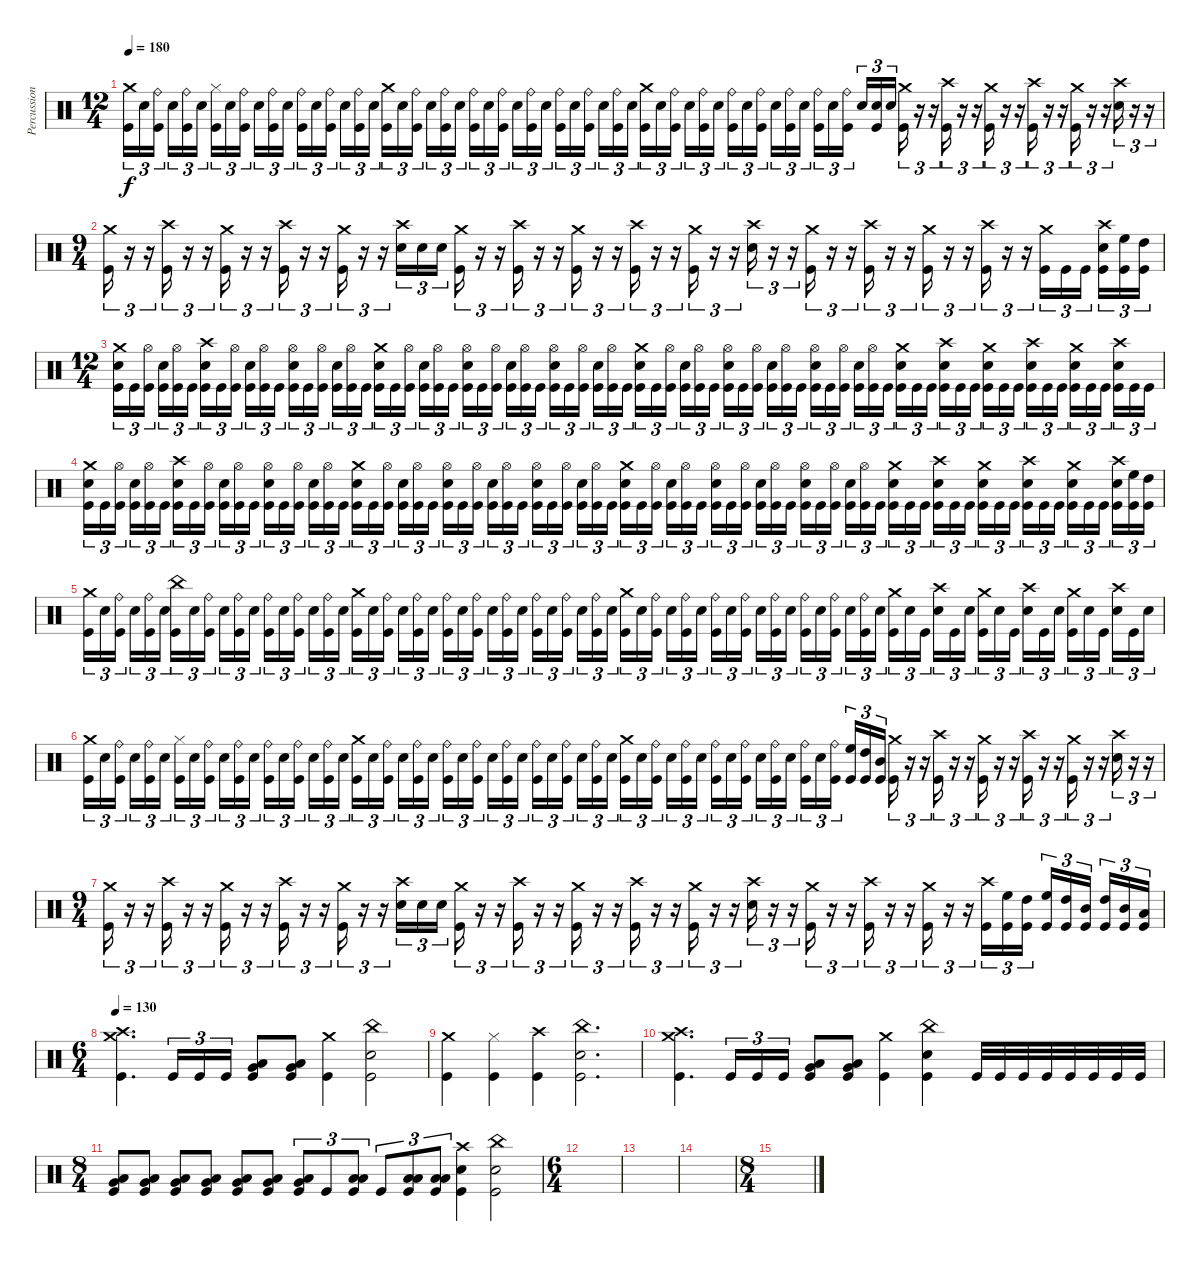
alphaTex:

\track ("Percussion" "Percussion") {instrument percussion}
\staff {score}
\articulation defaults
\ts (12 4)
\tempo 180
\clef neutral
\ks c
("Crash medium (hit)" "Kick (hit)").16{tu (3 2) dy f} "Snare (hit) 2".16{tu (3 2)} ("Ride (bell)" "Kick (hit)").16{tu (3 2) beam splitsecondary} "Snare (hit) 2".16{tu (3 2)} ("Ride (bell)" "Kick (hit)").16{tu (3 2)} "Snare (hit) 2".16{tu (3 2) beam splitsecondary} ("Hi-Hat (closed)" "Kick (hit)").16{tu (3 2)} "Snare (hit) 2".16{tu (3 2)} ("Ride (bell)" "Kick (hit)").16{tu (3 2) beam splitsecondary} "Snare (hit) 2".16{tu (3 2)} ("Ride (bell)" "Kick (hit)").16{tu (3 2)} "Snare (hit) 2".16{tu (3 2) beam splitsecondary} ("Ride (bell)" "Kick (hit)").16{tu (3 2)} "Snare (hit) 2".16{tu (3 2)} ("Ride (bell)" "Kick (hit)").16{tu (3 2) beam splitsecondary} "Snare (hit) 2".16{tu (3 2)} ("Ride (bell)" "Kick (hit)").16{tu (3 2)} "Snare (hit) 2".16{tu (3 2)} ("Crash medium (hit)" "Kick (hit)").16{tu (3 2)} "Snare (hit) 2".16{tu (3 2)} ("Ride (bell)" "Kick (hit)").16{tu (3 2) beam splitsecondary} "Snare (hit) 2".16{tu (3 2)} ("Ride (bell)" "Kick (hit)").16{tu (3 2)} "Snare (hit) 2".16{tu (3 2) beam splitsecondary} ("Ride (bell)" "Kick (hit)").16{tu (3 2)} "Snare (hit) 2".16{tu (3 2)} ("Ride (bell)" "Kick (hit)").16{tu (3 2) beam splitsecondary} "Snare (hit) 2".16{tu (3 2)} ("Ride (bell)" "Kick (hit)").16{tu (3 2)} "Snare (hit) 2".16{tu (3 2) beam splitsecondary} ("Ride (bell)" "Kick (hit)").16{tu (3 2)} "Snare (hit) 2".16{tu (3 2)} ("Ride (bell)" "Kick (hit)").16{tu (3 2) beam splitsecondary} "Snare (hit) 2".16{tu (3 2)} ("Ride (bell)" "Kick (hit)").16{tu (3 2)} "Snare (hit) 2".16{tu (3 2)} ("Crash medium (hit)" "Kick (hit)").16{tu (3 2)} "Snare (hit) 2".16{tu (3 2)} ("Ride (bell)" "Kick (hit)").16{tu (3 2) beam splitsecondary} "Snare (hit) 2".16{tu (3 2)} ("Ride (bell)" "Kick (hit)").16{tu (3 2)} "Snare (hit) 2".16{tu (3 2) beam splitsecondary} ("Ride (bell)" "Kick (hit)").16{tu (3 2)} "Snare (hit) 2".16{tu (3 2)} ("Ride (bell)" "Kick (hit)").16{tu (3 2) beam splitsecondary} "Snare (hit) 2".16{tu (3 2)} ("Ride (bell)" "Kick (hit)").16{tu (3 2)} "Snare (hit) 2".16{tu (3 2) beam splitsecondary} ("Ride (bell)" "Kick (hit)").16{tu (3 2)} "Snare (hit) 2".16{tu (3 2)} ("Ride (bell)" "Kick (hit)").16{tu (3 2) beam splitsecondary} "Snare (hit) 2".16{tu (3 2)} ("Snare (hit) 2" "Kick (hit)").16{tu (3 2)} "Snare (hit) 2".16{tu (3 2)} ("Crash medium (hit)" "Kick (hit)").16{tu (3 2)} r.16{tu (3 2)} r.16{tu (3 2)} ("Crash high (hit)" "Kick (hit)").16{tu (3 2)} r.16{tu (3 2)} r.16{tu (3 2)} ("Crash medium (hit)" "Kick (hit)").16{tu (3 2)} r.16{tu (3 2)} r.16{tu (3 2)} ("Crash high (hit)" "Kick (hit)").16{tu (3 2)} r.16{tu (3 2)} r.16{tu (3 2)} ("Crash medium (hit)" "Kick (hit)").16{tu (3 2)} r.16{tu (3 2)} r.16{tu (3 2)} ("Crash high (hit)" "Snare (hit) 2").16{tu (3 2)} r.16{tu (3 2)} r.16{tu (3 2)} |
\ts (9 4)
("Crash medium (hit)" "Kick (hit)").16{tu (3 2)} r.16{tu (3 2)} r.16{tu (3 2)} ("Crash high (hit)" "Kick (hit)").16{tu (3 2)} r.16{tu (3 2)} r.16{tu (3 2)} ("Crash medium (hit)" "Kick (hit)").16{tu (3 2)} r.16{tu (3 2)} r.16{tu (3 2)} ("Crash high (hit)" "Kick (hit)").16{tu (3 2)} r.16{tu (3 2)} r.16{tu (3 2)} ("Crash medium (hit)" "Kick (hit)").16{tu (3 2)} r.16{tu (3 2)} r.16{tu (3 2)} ("Crash high (hit)" "Snare (hit) 2").16{tu (3 2)} "Snare (hit) 2".16{tu (3 2)} "Snare (hit) 2".16{tu (3 2)} ("Crash medium (hit)" "Kick (hit)").16{tu (3 2)} r.16{tu (3 2)} r.16{tu (3 2)} ("Crash high (hit)" "Kick (hit)").16{tu (3 2)} r.16{tu (3 2)} r.16{tu (3 2)} ("Crash medium (hit)" "Kick (hit)").16{tu (3 2)} r.16{tu (3 2)} r.16{tu (3 2)} ("Crash high (hit)" "Kick (hit)").16{tu (3 2)} r.16{tu (3 2)} r.16{tu (3 2)} ("Crash medium (hit)" "Kick (hit)").16{tu (3 2)} r.16{tu (3 2)} r.16{tu (3 2)} ("Crash high (hit)" "Snare (hit) 2").16{tu (3 2)} r.16{tu (3 2)} r.16{tu (3 2)} ("Crash medium (hit)" "Kick (hit)").16{tu (3 2)} r.16{tu (3 2)} r.16{tu (3 2)} ("Crash high (hit)" "Kick (hit)").16{tu (3 2)} r.16{tu (3 2)} r.16{tu (3 2)} ("Crash medium (hit)" "Kick (hit)").16{tu (3 2)} r.16{tu (3 2)} r.16{tu (3 2)} ("Crash high (hit)" "Kick (hit)").16{tu (3 2)} r.16{tu (3 2)} r.16{tu (3 2)} ("Crash medium (hit)" "Kick (hit)").16{tu (3 2)} "Kick (hit)".16{tu (3 2)} "Kick (hit)".16{tu (3 2) beam splitsecondary} ("Crash high (hit)" "Snare (hit) 2" "Kick (hit)").16{tu (3 2)} ("High Floor Tom (hit)" "Kick (hit)").16{tu (3 2)} ("High Tom (hit)" "Kick (hit)").16{tu (3 2)} |
\ts (12 4)
("Crash medium (hit)" "Snare (hit) 2" "Kick (hit)").16{tu (3 2)} "Kick (hit)".16{tu (3 2)} ("Hi-Hat (open)" "Kick (hit)").16{tu (3 2) beam splitsecondary} ("Snare (hit) 2" "Kick (hit)").16{tu (3 2)} ("Hi-Hat (open)" "Kick (hit)").16{tu (3 2)} "Kick (hit)".16{tu (3 2) beam splitsecondary} ("Crash high (hit)" "Snare (hit) 2" "Kick (hit)").16{tu (3 2)} "Kick (hit)".16{tu (3 2)} ("Hi-Hat (open)" "Kick (hit)").16{tu (3 2) beam splitsecondary} ("Snare (hit) 2" "Kick (hit)").16{tu (3 2)} ("Hi-Hat (open)" "Kick (hit)").16{tu (3 2)} "Kick (hit)".16{tu (3 2) beam splitsecondary} ("Hi-Hat (open)" "Snare (hit) 2" "Kick (hit)").16{tu (3 2)} "Kick (hit)".16{tu (3 2)} ("Hi-Hat (open)" "Kick (hit)").16{tu (3 2) beam splitsecondary} ("Snare (hit) 2" "Kick (hit)").16{tu (3 2)} ("Hi-Hat (open)" "Kick (hit)").16{tu (3 2)} "Kick (hit)".16{tu (3 2)} ("Crash medium (hit)" "Snare (hit) 2" "Kick (hit)").16{tu (3 2)} "Kick (hit)".16{tu (3 2)} ("Hi-Hat (open)" "Kick (hit)").16{tu (3 2) beam splitsecondary} ("Snare (hit) 2" "Kick (hit)").16{tu (3 2)} ("Hi-Hat (open)" "Kick (hit)").16{tu (3 2)} "Kick (hit)".16{tu (3 2) beam splitsecondary} ("Hi-Hat (open)" "Snare (hit) 2" "Kick (hit)").16{tu (3 2)} "Kick (hit)".16{tu (3 2)} ("Hi-Hat (open)" "Kick (hit)").16{tu (3 2) beam splitsecondary} ("Snare (hit) 2" "Kick (hit)").16{tu (3 2)} ("Hi-Hat (open)" "Kick (hit)").16{tu (3 2)} "Kick (hit)".16{tu (3 2) beam splitsecondary} ("Hi-Hat (open)" "Snare (hit) 2" "Kick (hit)").16{tu (3 2)} "Kick (hit)".16{tu (3 2)} ("Hi-Hat (open)" "Kick (hit)").16{tu (3 2) beam splitsecondary} ("Snare (hit) 2" "Kick (hit)").16{tu (3 2)} ("Hi-Hat (open)" "Kick (hit)").16{tu (3 2)} "Kick (hit)".16{tu (3 2)} ("Crash medium (hit)" "Snare (hit) 2" "Kick (hit)").16{tu (3 2)} "Kick (hit)".16{tu (3 2)} ("Hi-Hat (open)" "Kick (hit)").16{tu (3 2) beam splitsecondary} ("Snare (hit) 2" "Kick (hit)").16{tu (3 2)} ("Hi-Hat (open)" "Kick (hit)").16{tu (3 2)} "Kick (hit)".16{tu (3 2) beam splitsecondary} ("Hi-Hat (open)" "Snare (hit) 2" "Kick (hit)").16{tu (3 2)} "Kick (hit)".16{tu (3 2)} ("Hi-Hat (open)" "Kick (hit)").16{tu (3 2) beam splitsecondary} ("Snare (hit) 2" "Kick (hit)").16{tu (3 2)} ("Hi-Hat (open)" "Kick (hit)").16{tu (3 2)} "Kick (hit)".16{tu (3 2) beam splitsecondary} ("Hi-Hat (open)" "Snare (hit) 2" "Kick (hit)").16{tu (3 2)} "Kick (hit)".16{tu (3 2)} ("Hi-Hat (open)" "Kick (hit)").16{tu (3 2) beam splitsecondary} ("Snare (hit) 2" "Kick (hit)").16{tu (3 2)} ("Hi-Hat (open)" "Kick (hit)").16{tu (3 2)} "Kick (hit)".16{tu (3 2)} ("Crash medium (hit)" "Snare (hit) 2" "Kick (hit)").16{tu (3 2)} "Kick (hit)".16{tu (3 2)} "Kick (hit)".16{tu (3 2) beam splitsecondary} ("Crash high (hit)" "Snare (hit) 2" "Kick (hit)").16{tu (3 2)} "Kick (hit)".16{tu (3 2)} "Kick (hit)".16{tu (3 2) beam splitsecondary} ("Crash medium (hit)" "Snare (hit) 2" "Kick (hit)").16{tu (3 2)} "Kick (hit)".16{tu (3 2)} "Kick (hit)".16{tu (3 2) beam splitsecondary} ("Crash high (hit)" "Snare (hit) 2" "Kick (hit)").16{tu (3 2)} "Kick (hit)".16{tu (3 2)} "Kick (hit)".16{tu (3 2) beam splitsecondary} ("Crash medium (hit)" "Snare (hit) 2" "Kick (hit)").16{tu (3 2)} "Kick (hit)".16{tu (3 2)} "Kick (hit)".16{tu (3 2) beam splitsecondary} ("Crash high (hit)" "Snare (hit) 2" "Kick (hit)").16{tu (3 2)} "Kick (hit)".16{tu (3 2)} "Kick (hit)".16{tu (3 2)} |
("Crash medium (hit)" "Snare (hit) 2" "Kick (hit)").16{tu (3 2)} "Kick (hit)".16{tu (3 2)} ("Hi-Hat (open)" "Kick (hit)").16{tu (3 2) beam splitsecondary} ("Snare (hit) 2" "Kick (hit)").16{tu (3 2)} ("Hi-Hat (open)" "Kick (hit)").16{tu (3 2)} "Kick (hit)".16{tu (3 2) beam splitsecondary} ("Crash high (hit)" "Snare (hit) 2" "Kick (hit)").16{tu (3 2)} "Kick (hit)".16{tu (3 2)} ("Hi-Hat (open)" "Kick (hit)").16{tu (3 2) beam splitsecondary} ("Snare (hit) 2" "Kick (hit)").16{tu (3 2)} ("Hi-Hat (open)" "Kick (hit)").16{tu (3 2)} "Kick (hit)".16{tu (3 2) beam splitsecondary} ("Hi-Hat (open)" "Snare (hit) 2" "Kick (hit)").16{tu (3 2)} "Kick (hit)".16{tu (3 2)} ("Hi-Hat (open)" "Kick (hit)").16{tu (3 2) beam splitsecondary} ("Snare (hit) 2" "Kick (hit)").16{tu (3 2)} ("Hi-Hat (open)" "Kick (hit)").16{tu (3 2)} "Kick (hit)".16{tu (3 2)} ("Crash medium (hit)" "Snare (hit) 2" "Kick (hit)").16{tu (3 2)} "Kick (hit)".16{tu (3 2)} ("Hi-Hat (open)" "Kick (hit)").16{tu (3 2) beam splitsecondary} ("Snare (hit) 2" "Kick (hit)").16{tu (3 2)} ("Hi-Hat (open)" "Kick (hit)").16{tu (3 2)} "Kick (hit)".16{tu (3 2) beam splitsecondary} ("Hi-Hat (open)" "Snare (hit) 2" "Kick (hit)").16{tu (3 2)} "Kick (hit)".16{tu (3 2)} ("Hi-Hat (open)" "Kick (hit)").16{tu (3 2) beam splitsecondary} ("Snare (hit) 2" "Kick (hit)").16{tu (3 2)} ("Hi-Hat (open)" "Kick (hit)").16{tu (3 2)} "Kick (hit)".16{tu (3 2) beam splitsecondary} ("Hi-Hat (open)" "Snare (hit) 2" "Kick (hit)").16{tu (3 2)} "Kick (hit)".16{tu (3 2)} ("Hi-Hat (open)" "Kick (hit)").16{tu (3 2) beam splitsecondary} ("Snare (hit) 2" "Kick (hit)").16{tu (3 2)} ("Hi-Hat (open)" "Kick (hit)").16{tu (3 2)} "Kick (hit)".16{tu (3 2)} ("Crash medium (hit)" "Snare (hit) 2" "Kick (hit)").16{tu (3 2)} "Kick (hit)".16{tu (3 2)} ("Hi-Hat (open)" "Kick (hit)").16{tu (3 2) beam splitsecondary} ("Snare (hit) 2" "Kick (hit)").16{tu (3 2)} ("Hi-Hat (open)" "Kick (hit)").16{tu (3 2)} "Kick (hit)".16{tu (3 2) beam splitsecondary} ("Hi-Hat (open)" "Snare (hit) 2" "Kick (hit)").16{tu (3 2)} "Kick (hit)".16{tu (3 2)} ("Hi-Hat (open)" "Kick (hit)").16{tu (3 2) beam splitsecondary} ("Snare (hit) 2" "Kick (hit)").16{tu (3 2)} ("Hi-Hat (open)" "Kick (hit)").16{tu (3 2)} "Kick (hit)".16{tu (3 2) beam splitsecondary} ("Hi-Hat (open)" "Snare (hit) 2" "Kick (hit)").16{tu (3 2)} "Kick (hit)".16{tu (3 2)} ("Hi-Hat (open)" "Kick (hit)").16{tu (3 2) beam splitsecondary} ("Snare (hit) 2" "Kick (hit)").16{tu (3 2)} ("Hi-Hat (open)" "Kick (hit)").16{tu (3 2)} "Kick (hit)".16{tu (3 2)} ("Crash medium (hit)" "Snare (hit) 2" "Kick (hit)").16{tu (3 2)} "Kick (hit)".16{tu (3 2)} "Kick (hit)".16{tu (3 2) beam splitsecondary} ("Crash high (hit)" "Snare (hit) 2" "Kick (hit)").16{tu (3 2)} "Kick (hit)".16{tu (3 2)} "Kick (hit)".16{tu (3 2) beam splitsecondary} ("Crash medium (hit)" "Snare (hit) 2" "Kick (hit)").16{tu (3 2)} "Kick (hit)".16{tu (3 2)} "Kick (hit)".16{tu (3 2) beam splitsecondary} ("Crash high (hit)" "Snare (hit) 2" "Kick (hit)").16{tu (3 2)} "Kick (hit)".16{tu (3 2)} "Kick (hit)".16{tu (3 2) beam splitsecondary} ("Crash medium (hit)" "Snare (hit) 2" "Kick (hit)").16{tu (3 2)} "Kick (hit)".16{tu (3 2)} "Kick (hit)".16{tu (3 2) beam splitsecondary} ("Crash high (hit)" "Snare (hit) 2" "Kick (hit)").16{tu (3 2)} ("High Floor Tom (hit)" "Kick (hit)").16{tu (3 2)} ("High Tom (hit)" "Kick (hit)").16{tu (3 2)} |
("Crash medium (hit)" "Kick (hit)").16{tu (3 2)} "Snare (hit) 2".16{tu (3 2)} ("Ride (bell)" "Kick (hit)").16{tu (3 2) beam splitsecondary} "Snare (hit) 2".16{tu (3 2)} ("Ride (bell)" "Kick (hit)").16{tu (3 2)} "Snare (hit) 2".16{tu (3 2) beam splitsecondary} ("China (hit)" "Kick (hit)").16{tu (3 2)} "Snare (hit) 2".16{tu (3 2)} ("Ride (bell)" "Kick (hit)").16{tu (3 2) beam splitsecondary} "Snare (hit) 2".16{tu (3 2)} ("Ride (bell)" "Kick (hit)").16{tu (3 2)} "Snare (hit) 2".16{tu (3 2) beam splitsecondary} ("Ride (bell)" "Kick (hit)").16{tu (3 2)} "Snare (hit) 2".16{tu (3 2)} ("Ride (bell)" "Kick (hit)").16{tu (3 2) beam splitsecondary} "Snare (hit) 2".16{tu (3 2)} ("Ride (bell)" "Kick (hit)").16{tu (3 2)} "Snare (hit) 2".16{tu (3 2)} ("Crash medium (hit)" "Kick (hit)").16{tu (3 2)} "Snare (hit) 2".16{tu (3 2)} ("Ride (bell)" "Kick (hit)").16{tu (3 2) beam splitsecondary} "Snare (hit) 2".16{tu (3 2)} ("Ride (bell)" "Kick (hit)").16{tu (3 2)} "Snare (hit) 2".16{tu (3 2) beam splitsecondary} ("Ride (bell)" "Kick (hit)").16{tu (3 2)} "Snare (hit) 2".16{tu (3 2)} ("Ride (bell)" "Kick (hit)").16{tu (3 2) beam splitsecondary} "Snare (hit) 2".16{tu (3 2)} ("Ride (bell)" "Kick (hit)").16{tu (3 2)} "Snare (hit) 2".16{tu (3 2) beam splitsecondary} ("Ride (bell)" "Kick (hit)").16{tu (3 2)} "Snare (hit) 2".16{tu (3 2)} ("Ride (bell)" "Kick (hit)").16{tu (3 2) beam splitsecondary} "Snare (hit) 2".16{tu (3 2)} ("Ride (bell)" "Kick (hit)").16{tu (3 2)} "Snare (hit) 2".16{tu (3 2)} ("Crash medium (hit)" "Kick (hit)").16{tu (3 2)} "Snare (hit) 2".16{tu (3 2)} ("Ride (bell)" "Kick (hit)").16{tu (3 2) beam splitsecondary} "Snare (hit) 2".16{tu (3 2)} ("Ride (bell)" "Kick (hit)").16{tu (3 2)} "Snare (hit) 2".16{tu (3 2) beam splitsecondary} ("Ride (bell)" "Kick (hit)").16{tu (3 2)} "Snare (hit) 2".16{tu (3 2)} ("Ride (bell)" "Kick (hit)").16{tu (3 2) beam splitsecondary} "Snare (hit) 2".16{tu (3 2)} ("Ride (bell)" "Kick (hit)").16{tu (3 2)} "Snare (hit) 2".16{tu (3 2) beam splitsecondary} ("Ride (bell)" "Kick (hit)").16{tu (3 2)} "Snare (hit) 2".16{tu (3 2)} ("Ride (bell)" "Kick (hit)").16{tu (3 2) beam splitsecondary} "Snare (hit) 2".16{tu (3 2)} ("Ride (bell)" "Kick (hit)").16{tu (3 2)} "Snare (hit) 2".16{tu (3 2)} ("Crash medium (hit)" "Kick (hit)").16{tu (3 2)} "Snare (hit) 2".16{tu (3 2)} "Kick (hit)".16{tu (3 2) beam splitsecondary} ("Crash high (hit)" "Snare (hit) 2").16{tu (3 2)} "Kick (hit)".16{tu (3 2)} "Snare (hit) 2".16{tu (3 2) beam splitsecondary} ("Crash medium (hit)" "Kick (hit)").16{tu (3 2)} "Snare (hit) 2".16{tu (3 2)} "Kick (hit)".16{tu (3 2) beam splitsecondary} ("Crash high (hit)" "Snare (hit) 2").16{tu (3 2)} "Kick (hit)".16{tu (3 2)} "Snare (hit) 2".16{tu (3 2) beam splitsecondary} ("Crash medium (hit)" "Kick (hit)").16{tu (3 2)} "Snare (hit) 2".16{tu (3 2)} "Kick (hit)".16{tu (3 2) beam splitsecondary} ("Crash high (hit)" "Snare (hit) 2").16{tu (3 2)} "Kick (hit)".16{tu (3 2)} "Snare (hit) 2".16{tu (3 2)} |
("Crash medium (hit)" "Kick (hit)").16{tu (3 2)} "Snare (hit) 2".16{tu (3 2)} ("Ride (bell)" "Kick (hit)").16{tu (3 2) beam splitsecondary} "Snare (hit) 2".16{tu (3 2)} ("Ride (bell)" "Kick (hit)").16{tu (3 2)} "Snare (hit) 2".16{tu (3 2) beam splitsecondary} ("Hi-Hat (closed)" "Kick (hit)").16{tu (3 2)} "Snare (hit) 2".16{tu (3 2)} ("Ride (bell)" "Kick (hit)").16{tu (3 2) beam splitsecondary} "Snare (hit) 2".16{tu (3 2)} ("Ride (bell)" "Kick (hit)").16{tu (3 2)} "Snare (hit) 2".16{tu (3 2) beam splitsecondary} ("Ride (bell)" "Kick (hit)").16{tu (3 2)} "Snare (hit) 2".16{tu (3 2)} ("Ride (bell)" "Kick (hit)").16{tu (3 2) beam splitsecondary} "Snare (hit) 2".16{tu (3 2)} ("Ride (bell)" "Kick (hit)").16{tu (3 2)} "Snare (hit) 2".16{tu (3 2)} ("Crash medium (hit)" "Kick (hit)").16{tu (3 2)} "Snare (hit) 2".16{tu (3 2)} ("Ride (bell)" "Kick (hit)").16{tu (3 2) beam splitsecondary} "Snare (hit) 2".16{tu (3 2)} ("Ride (bell)" "Kick (hit)").16{tu (3 2)} "Snare (hit) 2".16{tu (3 2) beam splitsecondary} ("Ride (bell)" "Kick (hit)").16{tu (3 2)} "Snare (hit) 2".16{tu (3 2)} ("Ride (bell)" "Kick (hit)").16{tu (3 2) beam splitsecondary} "Snare (hit) 2".16{tu (3 2)} ("Ride (bell)" "Kick (hit)").16{tu (3 2)} "Snare (hit) 2".16{tu (3 2) beam splitsecondary} ("Ride (bell)" "Kick (hit)").16{tu (3 2)} "Snare (hit) 2".16{tu (3 2)} ("Ride (bell)" "Kick (hit)").16{tu (3 2) beam splitsecondary} "Snare (hit) 2".16{tu (3 2)} ("Ride (bell)" "Kick (hit)").16{tu (3 2)} "Snare (hit) 2".16{tu (3 2)} ("Crash medium (hit)" "Kick (hit)").16{tu (3 2)} "Snare (hit) 2".16{tu (3 2)} ("Ride (bell)" "Kick (hit)").16{tu (3 2) beam splitsecondary} "Snare (hit) 2".16{tu (3 2)} ("Ride (bell)" "Kick (hit)").16{tu (3 2)} "Snare (hit) 2".16{tu (3 2) beam splitsecondary} ("Ride (bell)" "Kick (hit)").16{tu (3 2)} "Snare (hit) 2".16{tu (3 2)} ("Ride (bell)" "Kick (hit)").16{tu (3 2) beam splitsecondary} "Snare (hit) 2".16{tu (3 2)} ("Ride (bell)" "Kick (hit)").16{tu (3 2)} "Snare (hit) 2".16{tu (3 2) beam splitsecondary} ("Ride (bell)" "Kick (hit)").16{tu (3 2)} "Snare (hit) 2".16{tu (3 2)} ("Ride (bell)" "Kick (hit)").16{tu (3 2) beam splitsecondary} ("High Floor Tom (hit)" "Kick (hit)").16{tu (3 2)} ("High Tom (hit)" "Kick (hit)").16{tu (3 2)} ("Mid Tom (hit)" "Kick (hit)").16{tu (3 2)} ("Crash medium (hit)" "Kick (hit)").16{tu (3 2)} r.16{tu (3 2)} r.16{tu (3 2)} ("Crash high (hit)" "Kick (hit)").16{tu (3 2)} r.16{tu (3 2)} r.16{tu (3 2)} ("Crash medium (hit)" "Kick (hit)").16{tu (3 2)} r.16{tu (3 2)} r.16{tu (3 2)} ("Crash high (hit)" "Kick (hit)").16{tu (3 2)} r.16{tu (3 2)} r.16{tu (3 2)} ("Crash medium (hit)" "Kick (hit)").16{tu (3 2)} r.16{tu (3 2)} r.16{tu (3 2)} ("Crash high (hit)" "Snare (hit) 2").16{tu (3 2)} r.16{tu (3 2)} r.16{tu (3 2)} |
\ts (9 4)
("Crash medium (hit)" "Kick (hit)").16{tu (3 2)} r.16{tu (3 2)} r.16{tu (3 2)} ("Crash high (hit)" "Kick (hit)").16{tu (3 2)} r.16{tu (3 2)} r.16{tu (3 2)} ("Crash medium (hit)" "Kick (hit)").16{tu (3 2)} r.16{tu (3 2)} r.16{tu (3 2)} ("Crash high (hit)" "Kick (hit)").16{tu (3 2)} r.16{tu (3 2)} r.16{tu (3 2)} ("Crash medium (hit)" "Kick (hit)").16{tu (3 2)} r.16{tu (3 2)} r.16{tu (3 2)} ("Crash high (hit)" "Snare (hit) 2").16{tu (3 2)} "Snare (hit) 2".16{tu (3 2)} "Snare (hit) 2".16{tu (3 2)} ("Crash medium (hit)" "Kick (hit)").16{tu (3 2)} r.16{tu (3 2)} r.16{tu (3 2)} ("Crash high (hit)" "Kick (hit)").16{tu (3 2)} r.16{tu (3 2)} r.16{tu (3 2)} ("Crash medium (hit)" "Kick (hit)").16{tu (3 2)} r.16{tu (3 2)} r.16{tu (3 2)} ("Crash high (hit)" "Kick (hit)").16{tu (3 2)} r.16{tu (3 2)} r.16{tu (3 2)} ("Crash medium (hit)" "Kick (hit)").16{tu (3 2)} r.16{tu (3 2)} r.16{tu (3 2)} ("Crash high (hit)" "Snare (hit) 2").16{tu (3 2)} r.16{tu (3 2)} r.16{tu (3 2)} ("Crash medium (hit)" "Kick (hit)").16{tu (3 2)} r.16{tu (3 2)} r.16{tu (3 2)} ("Crash high (hit)" "Kick (hit)").16{tu (3 2)} r.16{tu (3 2)} r.16{tu (3 2)} ("Crash medium (hit)" "Kick (hit)").16{tu (3 2)} r.16{tu (3 2)} r.16{tu (3 2)} ("Crash high (hit)" "Kick (hit)").16{tu (3 2)} ("High Floor Tom (hit)" "Kick (hit)").16{tu (3 2)} ("High Tom (hit)" "Kick (hit)").16{tu (3 2) beam splitsecondary} ("High Floor Tom (hit)" "Kick (hit)").16{tu (3 2)} ("High Tom (hit)" "Kick (hit)").16{tu (3 2)} ("Mid Tom (hit)" "Kick (hit)").16{tu (3 2) beam splitsecondary} ("High Tom (hit)" "Kick (hit)").16{tu (3 2)} ("Mid Tom (hit)" "Kick (hit)").16{tu (3 2)} ("Low Tom (hit)" "Kick (hit)").16{tu (3 2)} |
\ts (6 4)
\tempo 130
("Crash high (hit)" "Crash medium (hit)" "Kick (hit)").4{d} "Kick (hit)".16{tu (3 2)} "Kick (hit)".16{tu (3 2)} "Kick (hit)".16{tu (3 2)} ("Very Low Tom (hit)" "Low Floor Tom (hit)" "Kick (hit)").8 ("Very Low Tom (hit)" "Low Floor Tom (hit)" "Kick (hit)").8 ("Crash medium (hit)" "Kick (hit)").4 ("China (hit)" "Snare (hit) 2" "Kick (hit)").2 |
("Crash medium (hit)" "Kick (hit)").4 ("Hi-Hat (closed)" "Kick (hit)").4 ("Crash high (hit)" "Kick (hit)").4 ("China (hit)" "Snare (hit) 2" "Kick (hit)").2{d} |
("Crash high (hit)" "Crash medium (hit)" "Kick (hit)").4{d} "Kick (hit)".16{tu (3 2)} "Kick (hit)".16{tu (3 2)} "Kick (hit)".16{tu (3 2)} ("Very Low Tom (hit)" "Low Floor Tom (hit)" "Kick (hit)").8 ("Very Low Tom (hit)" "Low Floor Tom (hit)" "Kick (hit)").8 ("Crash medium (hit)" "Kick (hit)").4 ("China (hit)" "Snare (hit) 2" "Kick (hit)").4 "Kick (hit)".32 "Kick (hit)".32 "Kick (hit)".32 "Kick (hit)".32 "Kick (hit)".32 "Kick (hit)".32 "Kick (hit)".32 "Kick (hit)".32 |
\ts (8 4)
("Low Tom (hit)" "Very Low Tom (hit)" "Kick (hit)").8 ("Low Tom (hit)" "Very Low Tom (hit)" "Kick (hit)").8 ("Low Tom (hit)" "Very Low Tom (hit)" "Kick (hit)").8 ("Low Tom (hit)" "Very Low Tom (hit)" "Kick (hit)").8 ("Low Floor Tom (hit)" "Very Low Tom (hit)" "Kick (hit)").8 ("Low Floor Tom (hit)" "Very Low Tom (hit)" "Kick (hit)").8 ("Low Floor Tom (hit)" "Very Low Tom (hit)" "Kick (hit)").8{tu (3 2)} "Kick (hit)".8{tu (3 2)} ("Low Floor Tom (hit)" "Low Floor Tom (hit)" "Kick (hit)").8{tu (3 2)} "Kick (hit)".8{tu (3 2)} ("Low Floor Tom (hit)" "Low Floor Tom (hit)" "Kick (hit)").8{tu (3 2)} ("Low Floor Tom (hit)" "Low Floor Tom (hit)" "Kick (hit)").8{tu (3 2)} ("Crash high (hit)" "Snare (hit) 2" "Kick (hit)").4 ("China (hit)" "Snare (hit) 2" "Kick (hit)").2 |
\ts (6 4)
|
|
|
\ts (8 4)
